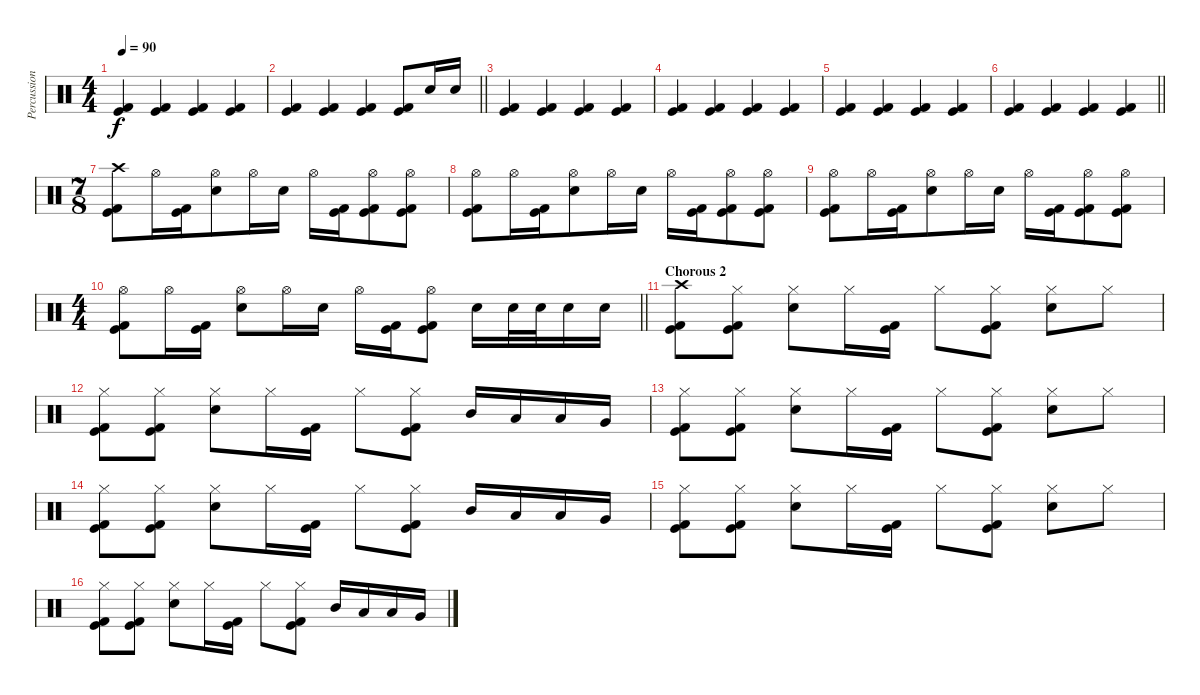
\track ("Percussion" "Percussion") {instrument percussion}
\staff {score}
\articulation defaults
\ts (4 4)
\tempo 90
\clef neutral
\ks c
("Kick (hit)" "Kick (hit) 2").4{dy f} ("Kick (hit)" "Kick (hit) 2").4 ("Kick (hit)" "Kick (hit) 2").4 ("Kick (hit)" "Kick (hit) 2").4 |
\barLineRight lightlight
("Kick (hit)" "Kick (hit) 2").4 ("Kick (hit)" "Kick (hit) 2").4 ("Kick (hit)" "Kick (hit) 2").4 ("Kick (hit)" "Kick (hit) 2").8 "Electric Snare (hit)".16 "Electric Snare (hit)".16 |
("Kick (hit)" "Kick (hit) 2").4 ("Kick (hit)" "Kick (hit) 2").4 ("Kick (hit)" "Kick (hit) 2").4 ("Kick (hit)" "Kick (hit) 2").4 |
("Kick (hit)" "Kick (hit) 2").4 ("Kick (hit)" "Kick (hit) 2").4 ("Kick (hit)" "Kick (hit) 2").4 ("Kick (hit)" "Kick (hit) 2").4 |
("Kick (hit)" "Kick (hit) 2").4 ("Kick (hit)" "Kick (hit) 2").4 ("Kick (hit)" "Kick (hit) 2").4 ("Kick (hit)" "Kick (hit) 2").4 |
\barLineRight lightlight
("Kick (hit)" "Kick (hit) 2").4 ("Kick (hit)" "Kick (hit) 2").4 ("Kick (hit)" "Kick (hit) 2").4 ("Kick (hit)" "Kick (hit) 2").4 |
\ts (7 8)
\section ("" "")
("Crash high (hit)" "Kick (hit)" "Kick (hit) 2").8 "Hi-Hat (open)".16 ("Kick (hit)" "Kick (hit) 2").16 ("Hi-Hat (open)" "Electric Snare (hit)").8 "Hi-Hat (open)".16 "Electric Snare (hit)".16 "Hi-Hat (open)".16 ("Kick (hit)" "Kick (hit) 2").16 ("Hi-Hat (open)" "Kick (hit)" "Kick (hit) 2").8 ("Hi-Hat (open)" "Kick (hit)" "Kick (hit) 2").8 |
("Hi-Hat (open)" "Kick (hit)" "Kick (hit) 2").8 "Hi-Hat (open)".16 ("Kick (hit)" "Kick (hit) 2").16 ("Hi-Hat (open)" "Electric Snare (hit)").8 "Hi-Hat (open)".16 "Electric Snare (hit)".16 "Hi-Hat (open)".16 ("Kick (hit)" "Kick (hit) 2").16 ("Hi-Hat (open)" "Kick (hit)" "Kick (hit) 2").8 ("Hi-Hat (open)" "Kick (hit)" "Kick (hit) 2").8 |
("Hi-Hat (open)" "Kick (hit)" "Kick (hit) 2").8 "Hi-Hat (open)".16 ("Kick (hit)" "Kick (hit) 2").16 ("Hi-Hat (open)" "Electric Snare (hit)").8 "Hi-Hat (open)".16 "Electric Snare (hit)".16 "Hi-Hat (open)".16 ("Kick (hit)" "Kick (hit) 2").16 ("Hi-Hat (open)" "Kick (hit)" "Kick (hit) 2").8 ("Hi-Hat (open)" "Kick (hit)" "Kick (hit) 2").8 |
\ts (4 4)
\barLineRight lightlight
("Hi-Hat (open)" "Kick (hit)" "Kick (hit) 2").8 "Hi-Hat (open)".16 ("Kick (hit)" "Kick (hit) 2").16 ("Hi-Hat (open)" "Electric Snare (hit)").8 "Hi-Hat (open)".16 "Electric Snare (hit)".16 "Hi-Hat (open)".16 ("Kick (hit)" "Kick (hit) 2").16 ("Hi-Hat (open)" "Kick (hit)" "Kick (hit) 2").8 "Electric Snare (hit)".16 "Electric Snare (hit)".32 "Electric Snare (hit)".32 "Electric Snare (hit)".16 "Electric Snare (hit)".16 |
\section ("" "Chorous 2")
("Crash high (hit)" "Kick (hit)" "Kick (hit) 2").8 ("Hi-Hat (closed)" "Kick (hit)" "Kick (hit) 2").8 ("Hi-Hat (closed)" "Electric Snare (hit)").8 "Hi-Hat (closed)".16 ("Kick (hit)" "Kick (hit) 2").16 "Hi-Hat (closed)".8 ("Hi-Hat (closed)" "Kick (hit)" "Kick (hit) 2").8 ("Hi-Hat (closed)" "Electric Snare (hit)").8 "Hi-Hat (closed)".8 |
("Hi-Hat (closed)" "Kick (hit)" "Kick (hit) 2").8 ("Hi-Hat (closed)" "Kick (hit)" "Kick (hit) 2").8 ("Hi-Hat (closed)" "Electric Snare (hit)").8 "Hi-Hat (closed)".16 ("Kick (hit)" "Kick (hit) 2").16 "Hi-Hat (closed)".8 ("Hi-Hat (closed)" "Kick (hit)" "Kick (hit) 2").8 "Mid Tom (hit)".16 "Low Tom (hit)".16 "Low Tom (hit)".16 "Very Low Tom (hit)".16 |
("Hi-Hat (closed)" "Kick (hit)" "Kick (hit) 2").8 ("Hi-Hat (closed)" "Kick (hit)" "Kick (hit) 2").8 ("Hi-Hat (closed)" "Electric Snare (hit)").8 "Hi-Hat (closed)".16 ("Kick (hit)" "Kick (hit) 2").16 "Hi-Hat (closed)".8 ("Hi-Hat (closed)" "Kick (hit)" "Kick (hit) 2").8 ("Hi-Hat (closed)" "Electric Snare (hit)").8 "Hi-Hat (closed)".8 |
("Hi-Hat (closed)" "Kick (hit)" "Kick (hit) 2").8 ("Hi-Hat (closed)" "Kick (hit)" "Kick (hit) 2").8 ("Hi-Hat (closed)" "Electric Snare (hit)").8 "Hi-Hat (closed)".16 ("Kick (hit)" "Kick (hit) 2").16 "Hi-Hat (closed)".8 ("Hi-Hat (closed)" "Kick (hit)" "Kick (hit) 2").8 "Mid Tom (hit)".16 "Low Tom (hit)".16 "Low Tom (hit)".16 "Very Low Tom (hit)".16 |
("Hi-Hat (closed)" "Kick (hit)" "Kick (hit) 2").8 ("Hi-Hat (closed)" "Kick (hit)" "Kick (hit) 2").8 ("Hi-Hat (closed)" "Electric Snare (hit)").8 "Hi-Hat (closed)".16 ("Kick (hit)" "Kick (hit) 2").16 "Hi-Hat (closed)".8 ("Hi-Hat (closed)" "Kick (hit)" "Kick (hit) 2").8 ("Hi-Hat (closed)" "Electric Snare (hit)").8 "Hi-Hat (closed)".8 |
("Hi-Hat (closed)" "Kick (hit)" "Kick (hit) 2").8 ("Hi-Hat (closed)" "Kick (hit)" "Kick (hit) 2").8 ("Hi-Hat (closed)" "Electric Snare (hit)").8 "Hi-Hat (closed)".16 ("Kick (hit)" "Kick (hit) 2").16 "Hi-Hat (closed)".8 ("Hi-Hat (closed)" "Kick (hit)" "Kick (hit) 2").8 "Mid Tom (hit)".16 "Low Tom (hit)".16 "Low Tom (hit)".16 "Very Low Tom (hit)".16
